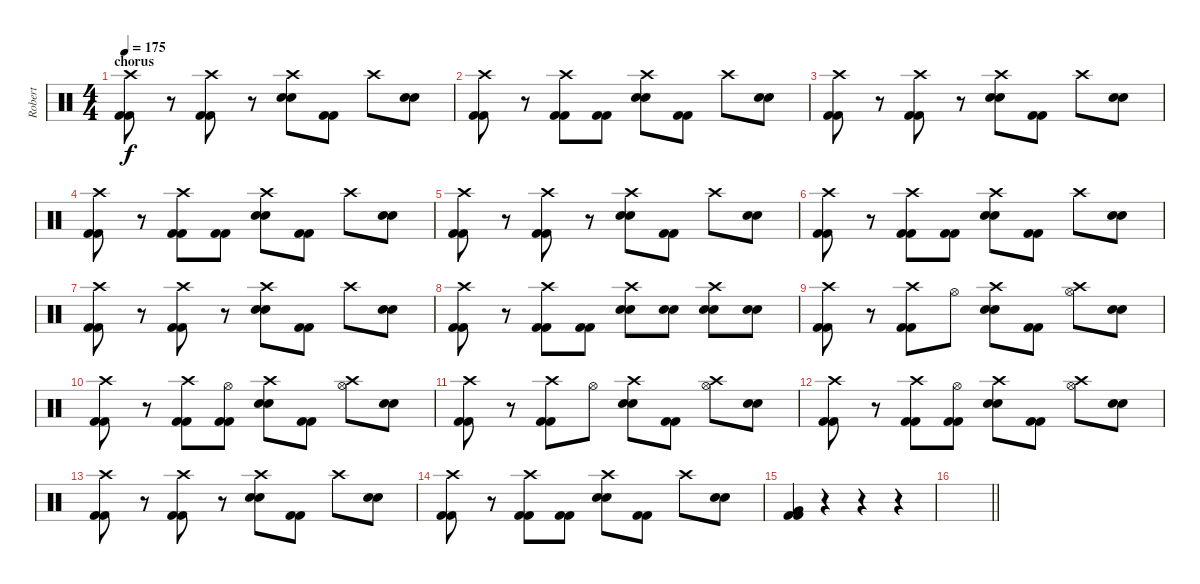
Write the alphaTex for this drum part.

\track ("Robert" "Robert") {instrument percussion}
\staff {score}
\articulation defaults
\ts (4 4)
\section ("" "chorus")
\tempo 175
\clef neutral
\ks c
("Crash high (hit)" "Kick (hit) 2" "Kick (hit) 2").8{dy f} r.8 ("Crash high (hit)" "Kick (hit) 2" "Kick (hit) 2").8 r.8 ("Crash high (hit)" "Electric Snare (hit)" "Electric Snare (hit)").8 ("Kick (hit) 2" "Kick (hit) 2").8 "Crash high (hit)".8 ("Electric Snare (hit)" "Electric Snare (hit)").8 |
("Crash high (hit)" "Kick (hit) 2" "Kick (hit) 2").8 r.8 ("Crash high (hit)" "Kick (hit) 2" "Kick (hit) 2").8 ("Kick (hit) 2" "Kick (hit) 2").8 ("Crash high (hit)" "Electric Snare (hit)" "Electric Snare (hit)").8 ("Kick (hit) 2" "Kick (hit) 2").8 "Crash high (hit)".8 ("Electric Snare (hit)" "Electric Snare (hit)").8 |
("Crash high (hit)" "Kick (hit) 2" "Kick (hit) 2").8 r.8 ("Crash high (hit)" "Kick (hit) 2" "Kick (hit) 2").8 r.8 ("Crash high (hit)" "Electric Snare (hit)" "Electric Snare (hit)").8 ("Kick (hit) 2" "Kick (hit) 2").8 "Crash high (hit)".8 ("Electric Snare (hit)" "Electric Snare (hit)").8 |
("Crash high (hit)" "Kick (hit) 2" "Kick (hit) 2").8 r.8 ("Crash high (hit)" "Kick (hit) 2" "Kick (hit) 2").8 ("Kick (hit) 2" "Kick (hit) 2").8 ("Crash high (hit)" "Electric Snare (hit)" "Electric Snare (hit)").8 ("Kick (hit) 2" "Kick (hit) 2").8 "Crash high (hit)".8 ("Electric Snare (hit)" "Electric Snare (hit)").8 |
("Crash high (hit)" "Kick (hit) 2" "Kick (hit) 2").8 r.8 ("Crash high (hit)" "Kick (hit) 2" "Kick (hit) 2").8 r.8 ("Crash high (hit)" "Electric Snare (hit)" "Electric Snare (hit)").8 ("Kick (hit) 2" "Kick (hit) 2").8 "Crash high (hit)".8 ("Electric Snare (hit)" "Electric Snare (hit)").8 |
("Crash high (hit)" "Kick (hit) 2" "Kick (hit) 2").8 r.8 ("Crash high (hit)" "Kick (hit) 2" "Kick (hit) 2").8 ("Kick (hit) 2" "Kick (hit) 2").8 ("Crash high (hit)" "Electric Snare (hit)" "Electric Snare (hit)").8 ("Kick (hit) 2" "Kick (hit) 2").8 "Crash high (hit)".8 ("Electric Snare (hit)" "Electric Snare (hit)").8 |
("Crash high (hit)" "Kick (hit) 2" "Kick (hit) 2").8 r.8 ("Crash high (hit)" "Kick (hit) 2" "Kick (hit) 2").8 r.8 ("Crash high (hit)" "Electric Snare (hit)" "Electric Snare (hit)").8 ("Kick (hit) 2" "Kick (hit) 2").8 "Crash high (hit)".8 ("Electric Snare (hit)" "Electric Snare (hit)").8 |
("Crash high (hit)" "Kick (hit) 2" "Kick (hit) 2").8 r.8 ("Crash high (hit)" "Kick (hit) 2" "Kick (hit) 2").8 ("Kick (hit) 2" "Kick (hit) 2").8 ("Crash high (hit)" "Electric Snare (hit)" "Electric Snare (hit)").8 ("Electric Snare (hit)" "Electric Snare (hit)").8 ("Crash high (hit)" "Electric Snare (hit)" "Electric Snare (hit)").8 ("Electric Snare (hit)" "Electric Snare (hit)").8 |
("Crash high (hit)" "Kick (hit) 2" "Kick (hit) 2").8 r.8 ("Crash high (hit)" "Kick (hit) 2" "Kick (hit) 2").8 "Hi-Hat (open)".8 ("Crash high (hit)" "Electric Snare (hit)" "Electric Snare (hit)").8 ("Kick (hit) 2" "Kick (hit) 2").8 ("Crash high (hit)" "Hi-Hat (open)").8 ("Electric Snare (hit)" "Electric Snare (hit)").8 |
("Crash high (hit)" "Kick (hit) 2" "Kick (hit) 2").8 r.8 ("Crash high (hit)" "Kick (hit) 2" "Kick (hit) 2").8 ("Hi-Hat (open)" "Kick (hit) 2" "Kick (hit) 2").8 ("Crash high (hit)" "Electric Snare (hit)" "Electric Snare (hit)").8 ("Kick (hit) 2" "Kick (hit) 2").8 ("Crash high (hit)" "Hi-Hat (open)").8 ("Electric Snare (hit)" "Electric Snare (hit)").8 |
("Crash high (hit)" "Kick (hit) 2" "Kick (hit) 2").8 r.8 ("Crash high (hit)" "Kick (hit) 2" "Kick (hit) 2").8 "Hi-Hat (open)".8 ("Crash high (hit)" "Electric Snare (hit)" "Electric Snare (hit)").8 ("Kick (hit) 2" "Kick (hit) 2").8 ("Crash high (hit)" "Hi-Hat (open)").8 ("Electric Snare (hit)" "Electric Snare (hit)").8 |
("Crash high (hit)" "Kick (hit) 2" "Kick (hit) 2").8 r.8 ("Crash high (hit)" "Kick (hit) 2" "Kick (hit) 2").8 ("Hi-Hat (open)" "Kick (hit) 2" "Kick (hit) 2").8 ("Crash high (hit)" "Electric Snare (hit)" "Electric Snare (hit)").8 ("Kick (hit) 2" "Kick (hit) 2").8 ("Crash high (hit)" "Hi-Hat (open)").8 ("Electric Snare (hit)" "Electric Snare (hit)").8 |
("Crash high (hit)" "Kick (hit) 2" "Kick (hit) 2").8 r.8 ("Crash high (hit)" "Kick (hit) 2" "Kick (hit) 2").8 r.8 ("Crash high (hit)" "Electric Snare (hit)" "Electric Snare (hit)").8 ("Kick (hit) 2" "Kick (hit) 2").8 "Crash high (hit)".8 ("Electric Snare (hit)" "Electric Snare (hit)").8 |
("Crash high (hit)" "Kick (hit) 2" "Kick (hit) 2").8 r.8 ("Crash high (hit)" "Kick (hit) 2" "Kick (hit) 2").8 ("Kick (hit) 2" "Kick (hit) 2").8 ("Crash high (hit)" "Electric Snare (hit)" "Electric Snare (hit)").8 ("Kick (hit) 2" "Kick (hit) 2").8 "Crash high (hit)".8 ("Electric Snare (hit)" "Electric Snare (hit)").8 |
("Very Low Tom (hit)" "Kick (hit) 2" "Kick (hit) 2").4 r.4 r.4 r.4 |
\barLineRight lightlight
